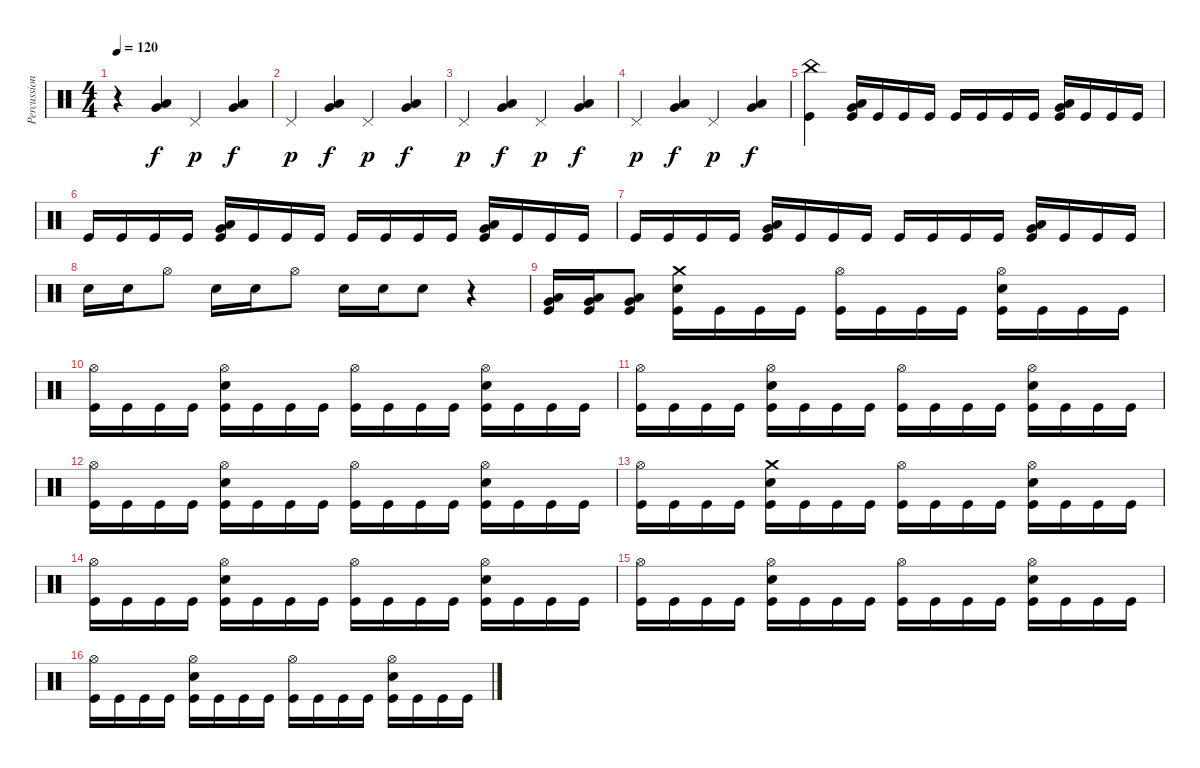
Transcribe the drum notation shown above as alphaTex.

\track ("Percussions" "Percussion") {instrument percussion}
\staff {score}
\articulation defaults
\ts (4 4)
\tempo 120
\clef neutral
\ks c
r.4{dy f} ("Low Floor Tom (hit)" "Very Low Tom (hit)").4 "Pedal Hi-Hat (hit)".4{dy p} ("Low Floor Tom (hit)" "Very Low Tom (hit)").4{dy f} |
"Pedal Hi-Hat (hit)".4{dy p} ("Low Floor Tom (hit)" "Very Low Tom (hit)").4{dy f} "Pedal Hi-Hat (hit)".4{dy p} ("Low Floor Tom (hit)" "Very Low Tom (hit)").4{dy f} |
"Pedal Hi-Hat (hit)".4{dy p} ("Low Floor Tom (hit)" "Very Low Tom (hit)").4{dy f} "Pedal Hi-Hat (hit)".4{dy p} ("Low Floor Tom (hit)" "Very Low Tom (hit)").4{dy f} |
"Pedal Hi-Hat (hit)".4{dy p} ("Low Floor Tom (hit)" "Very Low Tom (hit)").4{dy f} "Pedal Hi-Hat (hit)".4{dy p} ("Low Floor Tom (hit)" "Very Low Tom (hit)").4{dy f} |
("Kick (hit)" "China (hit)").4 ("Kick (hit)" "Low Floor Tom (hit)" "Very Low Tom (hit)").16 "Kick (hit)".16 "Kick (hit)".16 "Kick (hit)".16 "Kick (hit)".16 "Kick (hit)".16 "Kick (hit)".16 "Kick (hit)".16 ("Kick (hit)" "Low Floor Tom (hit)" "Very Low Tom (hit)").16 "Kick (hit)".16 "Kick (hit)".16 "Kick (hit)".16 |
"Kick (hit)".16 "Kick (hit)".16 "Kick (hit)".16 "Kick (hit)".16 ("Kick (hit)" "Low Floor Tom (hit)" "Very Low Tom (hit)").16 "Kick (hit)".16 "Kick (hit)".16 "Kick (hit)".16 "Kick (hit)".16 "Kick (hit)".16 "Kick (hit)".16 "Kick (hit)".16 ("Kick (hit)" "Low Floor Tom (hit)" "Very Low Tom (hit)").16 "Kick (hit)".16 "Kick (hit)".16 "Kick (hit)".16 |
"Kick (hit)".16 "Kick (hit)".16 "Kick (hit)".16 "Kick (hit)".16 ("Kick (hit)" "Low Floor Tom (hit)" "Very Low Tom (hit)").16 "Kick (hit)".16 "Kick (hit)".16 "Kick (hit)".16 "Kick (hit)".16 "Kick (hit)".16 "Kick (hit)".16 "Kick (hit)".16 ("Kick (hit)" "Low Floor Tom (hit)" "Very Low Tom (hit)").16 "Kick (hit)".16 "Kick (hit)".16 "Kick (hit)".16 |
"Electric Snare (hit)".16 "Electric Snare (hit)".16 "Hi-Hat (open)".8 "Electric Snare (hit)".16 "Electric Snare (hit)".16 "Hi-Hat (open)".8 "Electric Snare (hit)".16 "Electric Snare (hit)".16 "Electric Snare (hit)".8 r.4 |
("Kick (hit)" "Very Low Tom (hit)" "Low Floor Tom (hit)").16 ("Kick (hit)" "Very Low Tom (hit)" "Low Floor Tom (hit)").16 ("Kick (hit)" "Very Low Tom (hit)" "Low Floor Tom (hit)").8 ("Kick (hit)" "Electric Snare (hit)" "Crash medium (hit)").16 "Kick (hit)".16 "Kick (hit)".16 "Kick (hit)".16 ("Kick (hit)" "Hi-Hat (open)").16 "Kick (hit)".16 "Kick (hit)".16 "Kick (hit)".16 ("Kick (hit)" "Electric Snare (hit)" "Hi-Hat (open)").16 "Kick (hit)".16 "Kick (hit)".16 "Kick (hit)".16 |
("Kick (hit)" "Hi-Hat (open)").16 "Kick (hit)".16 "Kick (hit)".16 "Kick (hit)".16 ("Kick (hit)" "Electric Snare (hit)" "Hi-Hat (open)").16 "Kick (hit)".16 "Kick (hit)".16 "Kick (hit)".16 ("Kick (hit)" "Hi-Hat (open)").16 "Kick (hit)".16 "Kick (hit)".16 "Kick (hit)".16 ("Kick (hit)" "Electric Snare (hit)" "Hi-Hat (open)").16 "Kick (hit)".16 "Kick (hit)".16 "Kick (hit)".16 |
("Kick (hit)" "Hi-Hat (open)").16 "Kick (hit)".16 "Kick (hit)".16 "Kick (hit)".16 ("Kick (hit)" "Electric Snare (hit)" "Hi-Hat (open)").16 "Kick (hit)".16 "Kick (hit)".16 "Kick (hit)".16 ("Kick (hit)" "Hi-Hat (open)").16 "Kick (hit)".16 "Kick (hit)".16 "Kick (hit)".16 ("Kick (hit)" "Electric Snare (hit)" "Hi-Hat (open)").16 "Kick (hit)".16 "Kick (hit)".16 "Kick (hit)".16 |
("Kick (hit)" "Hi-Hat (open)").16 "Kick (hit)".16 "Kick (hit)".16 "Kick (hit)".16 ("Kick (hit)" "Electric Snare (hit)" "Hi-Hat (open)").16 "Kick (hit)".16 "Kick (hit)".16 "Kick (hit)".16 ("Kick (hit)" "Hi-Hat (open)").16 "Kick (hit)".16 "Kick (hit)".16 "Kick (hit)".16 ("Kick (hit)" "Electric Snare (hit)" "Hi-Hat (open)").16 "Kick (hit)".16 "Kick (hit)".16 "Kick (hit)".16 |
("Kick (hit)" "Hi-Hat (open)").16 "Kick (hit)".16 "Kick (hit)".16 "Kick (hit)".16 ("Kick (hit)" "Electric Snare (hit)" "Crash medium (hit)").16 "Kick (hit)".16 "Kick (hit)".16 "Kick (hit)".16 ("Kick (hit)" "Hi-Hat (open)").16 "Kick (hit)".16 "Kick (hit)".16 "Kick (hit)".16 ("Kick (hit)" "Electric Snare (hit)" "Hi-Hat (open)").16 "Kick (hit)".16 "Kick (hit)".16 "Kick (hit)".16 |
("Kick (hit)" "Hi-Hat (open)").16 "Kick (hit)".16 "Kick (hit)".16 "Kick (hit)".16 ("Kick (hit)" "Electric Snare (hit)" "Hi-Hat (open)").16 "Kick (hit)".16 "Kick (hit)".16 "Kick (hit)".16 ("Kick (hit)" "Hi-Hat (open)").16 "Kick (hit)".16 "Kick (hit)".16 "Kick (hit)".16 ("Kick (hit)" "Electric Snare (hit)" "Hi-Hat (open)").16 "Kick (hit)".16 "Kick (hit)".16 "Kick (hit)".16 |
("Kick (hit)" "Hi-Hat (open)").16 "Kick (hit)".16 "Kick (hit)".16 "Kick (hit)".16 ("Kick (hit)" "Electric Snare (hit)" "Hi-Hat (open)").16 "Kick (hit)".16 "Kick (hit)".16 "Kick (hit)".16 ("Kick (hit)" "Hi-Hat (open)").16 "Kick (hit)".16 "Kick (hit)".16 "Kick (hit)".16 ("Kick (hit)" "Electric Snare (hit)" "Hi-Hat (open)").16 "Kick (hit)".16 "Kick (hit)".16 "Kick (hit)".16 |
("Kick (hit)" "Hi-Hat (open)").16 "Kick (hit)".16 "Kick (hit)".16 "Kick (hit)".16 ("Kick (hit)" "Electric Snare (hit)" "Hi-Hat (open)").16 "Kick (hit)".16 "Kick (hit)".16 "Kick (hit)".16 ("Kick (hit)" "Hi-Hat (open)").16 "Kick (hit)".16 "Kick (hit)".16 "Kick (hit)".16 ("Kick (hit)" "Electric Snare (hit)" "Hi-Hat (open)").16 "Kick (hit)".16 "Kick (hit)".16 "Kick (hit)".16
